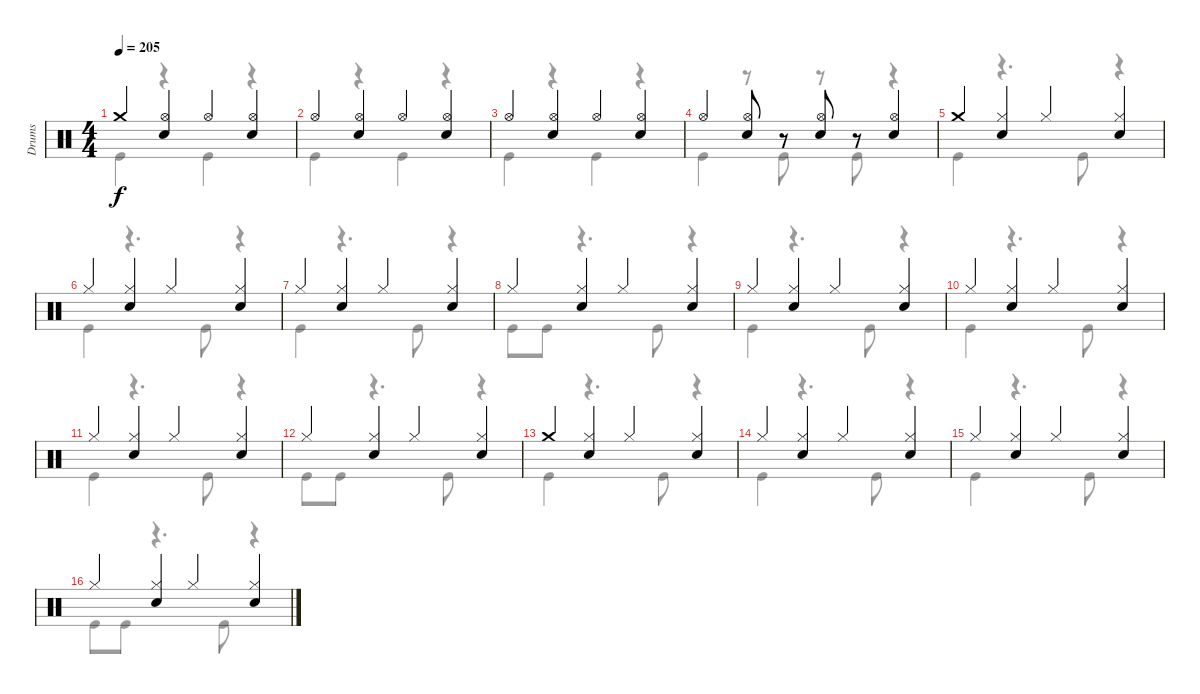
\track ("Drums" "Drums") {instrument percussion}
\staff {score}
\articulation defaults
\voice
\ts (4 4)
\tempo 205
\clef neutral
\ks c "Crash medium (hit)".4{dy f}
("Hi-Hat (open)" "Snare (hit) 2").4 "Hi-Hat (open)".4 ("Hi-Hat (open)" "Snare (hit) 2").4 |
"Hi-Hat (open)".4 ("Hi-Hat (open)" "Snare (hit) 2").4 "Hi-Hat (open)".4 ("Hi-Hat (open)" "Snare (hit) 2").4 |
"Hi-Hat (open)".4 ("Hi-Hat (open)" "Snare (hit) 2").4 "Hi-Hat (open)".4 ("Hi-Hat (open)" "Snare (hit) 2").4 |
"Hi-Hat (open)".4 ("Hi-Hat (open)" "Snare (hit) 2").8 r.8 ("Hi-Hat (open)" "Snare (hit) 2").8 r.8 ("Hi-Hat (open)" "Snare (hit) 2").4 |
"Crash medium (hit)".4 ("Hi-Hat (closed)" "Snare (hit) 2").4 "Hi-Hat (closed)".4 ("Hi-Hat (closed)" "Snare (hit) 2").4 |
"Hi-Hat (closed)".4 ("Hi-Hat (closed)" "Snare (hit) 2").4 "Hi-Hat (closed)".4 ("Hi-Hat (closed)" "Snare (hit) 2").4 |
"Hi-Hat (closed)".4 ("Hi-Hat (closed)" "Snare (hit) 2").4 "Hi-Hat (closed)".4 ("Hi-Hat (closed)" "Snare (hit) 2").4 |
"Hi-Hat (closed)".4 ("Hi-Hat (closed)" "Snare (hit) 2").4 "Hi-Hat (closed)".4 ("Hi-Hat (closed)" "Snare (hit) 2").4 |
"Hi-Hat (closed)".4 ("Hi-Hat (closed)" "Snare (hit) 2").4 "Hi-Hat (closed)".4 ("Hi-Hat (closed)" "Snare (hit) 2").4 |
"Hi-Hat (closed)".4 ("Hi-Hat (closed)" "Snare (hit) 2").4 "Hi-Hat (closed)".4 ("Hi-Hat (closed)" "Snare (hit) 2").4 |
"Hi-Hat (closed)".4 ("Hi-Hat (closed)" "Snare (hit) 2").4 "Hi-Hat (closed)".4 ("Hi-Hat (closed)" "Snare (hit) 2").4 |
"Hi-Hat (closed)".4 ("Hi-Hat (closed)" "Snare (hit) 2").4 "Hi-Hat (closed)".4 ("Hi-Hat (closed)" "Snare (hit) 2").4 |
"Crash medium (hit)".4 ("Hi-Hat (closed)" "Snare (hit) 2").4 "Hi-Hat (closed)".4 ("Hi-Hat (closed)" "Snare (hit) 2").4 |
"Hi-Hat (closed)".4 ("Hi-Hat (closed)" "Snare (hit) 2").4 "Hi-Hat (closed)".4 ("Hi-Hat (closed)" "Snare (hit) 2").4 |
"Hi-Hat (closed)".4 ("Hi-Hat (closed)" "Snare (hit) 2").4 "Hi-Hat (closed)".4 ("Hi-Hat (closed)" "Snare (hit) 2").4 |
"Hi-Hat (closed)".4 ("Hi-Hat (closed)" "Snare (hit) 2").4 "Hi-Hat (closed)".4 ("Hi-Hat (closed)" "Snare (hit) 2").4
\voice
\clef neutral
\ottava regular
\simile none
\ks c "Kick (hit)".4{dy f}
r.4 "Kick (hit)".4 r.4 |
"Kick (hit)".4 r.4 "Kick (hit)".4 r.4 |
"Kick (hit)".4 r.4 "Kick (hit)".4 r.4 |
"Kick (hit)".4 r.8 "Kick (hit)".8 r.8 "Kick (hit)".8 r.4 |
"Kick (hit)".4 r.4{d} "Kick (hit)".8 r.4 |
"Kick (hit)".4 r.4{d} "Kick (hit)".8 r.4 |
"Kick (hit)".4 r.4{d} "Kick (hit)".8 r.4 |
"Kick (hit)".8 "Kick (hit)".8 r.4{d} "Kick (hit)".8 r.4 |
"Kick (hit)".4 r.4{d} "Kick (hit)".8 r.4 |
"Kick (hit)".4 r.4{d} "Kick (hit)".8 r.4 |
"Kick (hit)".4 r.4{d} "Kick (hit)".8 r.4 |
"Kick (hit)".8 "Kick (hit)".8 r.4{d} "Kick (hit)".8 r.4 |
"Kick (hit)".4 r.4{d} "Kick (hit)".8 r.4 |
"Kick (hit)".4 r.4{d} "Kick (hit)".8 r.4 |
"Kick (hit)".4 r.4{d} "Kick (hit)".8 r.4 |
"Kick (hit)".8 "Kick (hit)".8 r.4{d} "Kick (hit)".8 r.4
